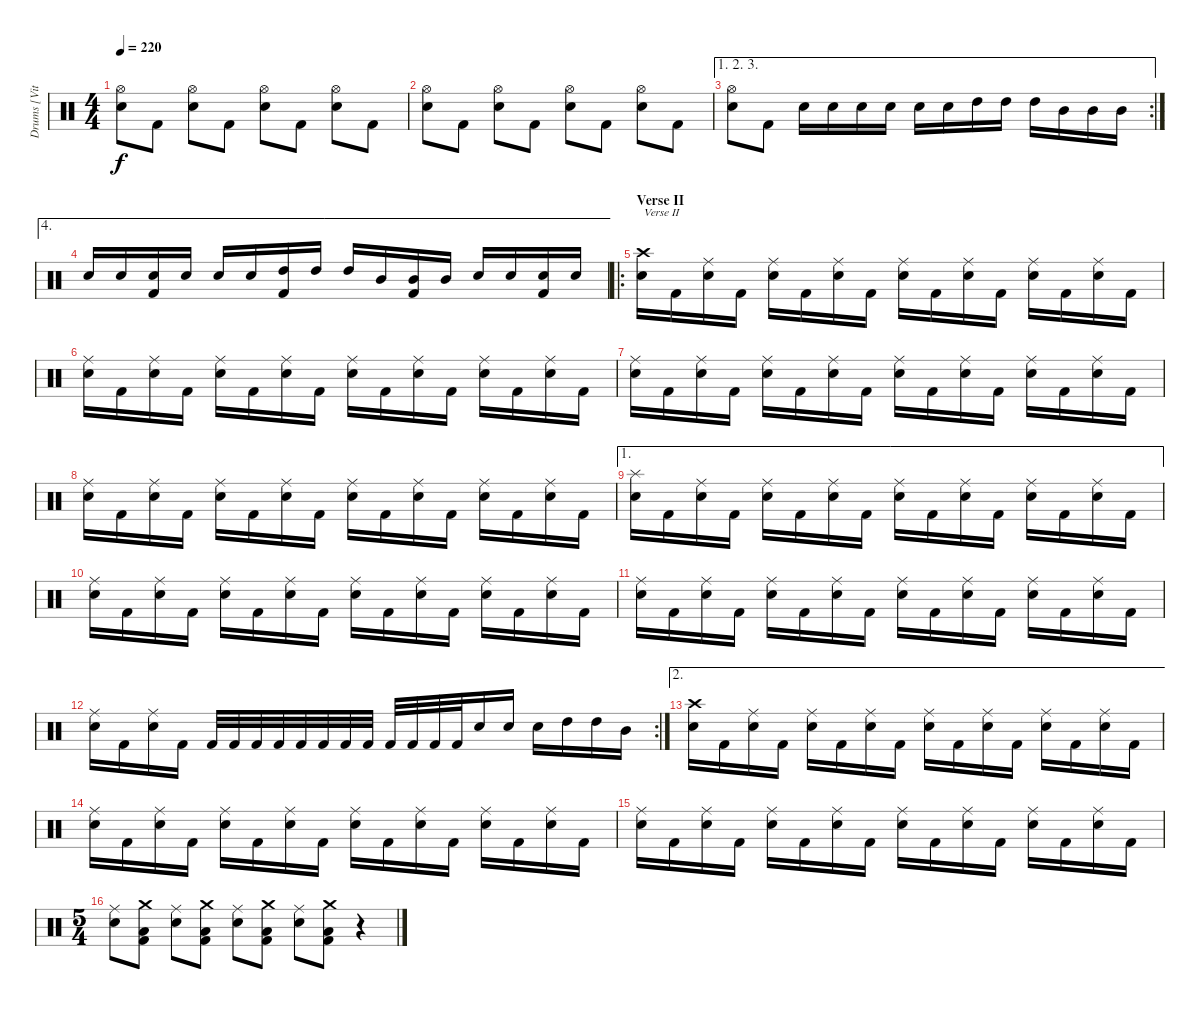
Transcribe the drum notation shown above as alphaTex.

\track ("Drums [Vitek]" "Drums [Vit") {instrument percussion}
\staff {score}
\articulation defaults
\ts (4 4)
\tempo 220
\clef neutral
\ks c
("Hi-Hat (open)" "Electric Snare (hit)").8{dy f} "Kick (hit) 2".8 ("Hi-Hat (open)" "Electric Snare (hit)").8 "Kick (hit) 2".8 ("Hi-Hat (open)" "Electric Snare (hit)").8 "Kick (hit) 2".8 ("Hi-Hat (open)" "Electric Snare (hit)").8 "Kick (hit) 2".8 |
("Hi-Hat (open)" "Electric Snare (hit)").8 "Kick (hit) 2".8 ("Hi-Hat (open)" "Electric Snare (hit)").8 "Kick (hit) 2".8 ("Hi-Hat (open)" "Electric Snare (hit)").8 "Kick (hit) 2".8 ("Hi-Hat (open)" "Electric Snare (hit)").8 "Kick (hit) 2".8 |
\ae (1 2 3)
\rc 2
("Hi-Hat (open)" "Electric Snare (hit)").8 "Kick (hit) 2".8 "Electric Snare (hit)".16 "Electric Snare (hit)".16 "Electric Snare (hit)".16 "Electric Snare (hit)".16 "Electric Snare (hit)".16 "Electric Snare (hit)".16 "High Tom (hit)".16 "High Tom (hit)".16 "High Tom (hit)".16 "Mid Tom (hit)".16 "Mid Tom (hit)".16 "Mid Tom (hit)".16 |
\ae 4 "Electric Snare (hit)".16 "Electric Snare (hit)".16
("Electric Snare (hit)" "Kick (hit) 2").16 "Electric Snare (hit)".16 "Electric Snare (hit)".16 "Electric Snare (hit)".16 ("High Tom (hit)" "Kick (hit) 2").16 "High Tom (hit)".16 "High Tom (hit)".16 "Mid Tom (hit)".16 ("Mid Tom (hit)" "Kick (hit) 2").16 "Mid Tom (hit)".16 "Electric Snare (hit)".16 "Electric Snare (hit)".16 ("Electric Snare (hit)" "Kick (hit) 2").16 "Electric Snare (hit)".16 |
\ro
\section ("" "Verse II")
("Crash high (hit)" "Electric Snare (hit)").16{txt "Verse II"} "Kick (hit) 2".16 ("Ride (middle)" "Electric Snare (hit)").16 "Kick (hit) 2".16 ("Ride (middle)" "Electric Snare (hit)").16 "Kick (hit) 2".16 ("Ride (middle)" "Electric Snare (hit)").16 "Kick (hit) 2".16 ("Ride (middle)" "Electric Snare (hit)").16 "Kick (hit) 2".16 ("Ride (middle)" "Electric Snare (hit)").16 "Kick (hit) 2".16 ("Ride (middle)" "Electric Snare (hit)").16 "Kick (hit) 2".16 ("Ride (middle)" "Electric Snare (hit)").16 "Kick (hit) 2".16 |
("Ride (middle)" "Electric Snare (hit)").16 "Kick (hit) 2".16 ("Ride (middle)" "Electric Snare (hit)").16 "Kick (hit) 2".16 ("Ride (middle)" "Electric Snare (hit)").16 "Kick (hit) 2".16 ("Ride (middle)" "Electric Snare (hit)").16 "Kick (hit) 2".16 ("Ride (middle)" "Electric Snare (hit)").16 "Kick (hit) 2".16 ("Ride (middle)" "Electric Snare (hit)").16 "Kick (hit) 2".16 ("Ride (middle)" "Electric Snare (hit)").16 "Kick (hit) 2".16 ("Ride (middle)" "Electric Snare (hit)").16 "Kick (hit) 2".16 |
("Ride (middle)" "Electric Snare (hit)").16 "Kick (hit) 2".16 ("Ride (middle)" "Electric Snare (hit)").16 "Kick (hit) 2".16 ("Ride (middle)" "Electric Snare (hit)").16 "Kick (hit) 2".16 ("Ride (middle)" "Electric Snare (hit)").16 "Kick (hit) 2".16 ("Ride (middle)" "Electric Snare (hit)").16 "Kick (hit) 2".16 ("Ride (middle)" "Electric Snare (hit)").16 "Kick (hit) 2".16 ("Ride (middle)" "Electric Snare (hit)").16 "Kick (hit) 2".16 ("Ride (middle)" "Electric Snare (hit)").16 "Kick (hit) 2".16 |
("Ride (middle)" "Electric Snare (hit)").16 "Kick (hit) 2".16 ("Ride (middle)" "Electric Snare (hit)").16 "Kick (hit) 2".16 ("Ride (middle)" "Electric Snare (hit)").16 "Kick (hit) 2".16 ("Ride (middle)" "Electric Snare (hit)").16 "Kick (hit) 2".16 ("Ride (middle)" "Electric Snare (hit)").16 "Kick (hit) 2".16 ("Ride (middle)" "Electric Snare (hit)").16 "Kick (hit) 2".16 ("Ride (middle)" "Electric Snare (hit)").16 "Kick (hit) 2".16 ("Ride (middle)" "Electric Snare (hit)").16 "Kick (hit) 2".16 |
\ae 1
("Splash (hit)" "Electric Snare (hit)").16 "Kick (hit) 2".16 ("Ride (middle)" "Electric Snare (hit)").16 "Kick (hit) 2".16 ("Ride (middle)" "Electric Snare (hit)").16 "Kick (hit) 2".16 ("Ride (middle)" "Electric Snare (hit)").16 "Kick (hit) 2".16 ("Ride (middle)" "Electric Snare (hit)").16 "Kick (hit) 2".16 ("Ride (middle)" "Electric Snare (hit)").16 "Kick (hit) 2".16 ("Ride (middle)" "Electric Snare (hit)").16 "Kick (hit) 2".16 ("Ride (middle)" "Electric Snare (hit)").16 "Kick (hit) 2".16 |
("Ride (middle)" "Electric Snare (hit)").16 "Kick (hit) 2".16 ("Ride (middle)" "Electric Snare (hit)").16 "Kick (hit) 2".16 ("Ride (middle)" "Electric Snare (hit)").16 "Kick (hit) 2".16 ("Ride (middle)" "Electric Snare (hit)").16 "Kick (hit) 2".16 ("Ride (middle)" "Electric Snare (hit)").16 "Kick (hit) 2".16 ("Ride (middle)" "Electric Snare (hit)").16 "Kick (hit) 2".16 ("Ride (middle)" "Electric Snare (hit)").16 "Kick (hit) 2".16 ("Ride (middle)" "Electric Snare (hit)").16 "Kick (hit) 2".16 |
("Ride (middle)" "Electric Snare (hit)").16 "Kick (hit) 2".16 ("Ride (middle)" "Electric Snare (hit)").16 "Kick (hit) 2".16 ("Ride (middle)" "Electric Snare (hit)").16 "Kick (hit) 2".16 ("Ride (middle)" "Electric Snare (hit)").16 "Kick (hit) 2".16 ("Ride (middle)" "Electric Snare (hit)").16 "Kick (hit) 2".16 ("Ride (middle)" "Electric Snare (hit)").16 "Kick (hit) 2".16 ("Ride (middle)" "Electric Snare (hit)").16 "Kick (hit) 2".16 ("Ride (middle)" "Electric Snare (hit)").16 "Kick (hit) 2".16 |
\rc 2
("Ride (middle)" "Electric Snare (hit)").16 "Kick (hit) 2".16 ("Ride (middle)" "Electric Snare (hit)").16 "Kick (hit) 2".16 "Kick (hit) 2".32 "Kick (hit) 2".32 "Kick (hit) 2".32 "Kick (hit) 2".32 "Kick (hit) 2".32 "Kick (hit) 2".32 "Kick (hit) 2".32 "Kick (hit) 2".32 "Kick (hit) 2".32 "Kick (hit) 2".32 "Kick (hit) 2".32 "Kick (hit) 2".32 "Electric Snare (hit)".16 "Electric Snare (hit)".16 "Electric Snare (hit)".16 "High Tom (hit)".16 "High Tom (hit)".16 "Mid Tom (hit)".16 |
\ae 2
("Crash high (hit)" "Electric Snare (hit)").16 "Kick (hit) 2".16 ("Ride (middle)" "Electric Snare (hit)").16 "Kick (hit) 2".16 ("Ride (middle)" "Electric Snare (hit)").16 "Kick (hit) 2".16 ("Ride (middle)" "Electric Snare (hit)").16 "Kick (hit) 2".16 ("Ride (middle)" "Electric Snare (hit)").16 "Kick (hit) 2".16 ("Ride (middle)" "Electric Snare (hit)").16 "Kick (hit) 2".16 ("Ride (middle)" "Electric Snare (hit)").16 "Kick (hit) 2".16 ("Ride (middle)" "Electric Snare (hit)").16 "Kick (hit) 2".16 |
("Ride (middle)" "Electric Snare (hit)").16 "Kick (hit) 2".16 ("Ride (middle)" "Electric Snare (hit)").16 "Kick (hit) 2".16 ("Ride (middle)" "Electric Snare (hit)").16 "Kick (hit) 2".16 ("Ride (middle)" "Electric Snare (hit)").16 "Kick (hit) 2".16 ("Ride (middle)" "Electric Snare (hit)").16 "Kick (hit) 2".16 ("Ride (middle)" "Electric Snare (hit)").16 "Kick (hit) 2".16 ("Ride (middle)" "Electric Snare (hit)").16 "Kick (hit) 2".16 ("Ride (middle)" "Electric Snare (hit)").16 "Kick (hit) 2".16 |
("Ride (middle)" "Electric Snare (hit)").16 "Kick (hit) 2".16 ("Ride (middle)" "Electric Snare (hit)").16 "Kick (hit) 2".16 ("Ride (middle)" "Electric Snare (hit)").16 "Kick (hit) 2".16 ("Ride (middle)" "Electric Snare (hit)").16 "Kick (hit) 2".16 ("Ride (middle)" "Electric Snare (hit)").16 "Kick (hit) 2".16 ("Ride (middle)" "Electric Snare (hit)").16 "Kick (hit) 2".16 ("Ride (middle)" "Electric Snare (hit)").16 "Kick (hit) 2".16 ("Ride (middle)" "Electric Snare (hit)").16 "Kick (hit) 2".16 |
\ts (5 4)
("Ride (middle)" "Electric Snare (hit)").8 ("Crash medium (hit)" "Low Tom (hit)" "Kick (hit) 2").8 ("Ride (middle)" "Electric Snare (hit)").8 ("Crash medium (hit)" "Low Tom (hit)" "Kick (hit) 2").8 ("Ride (middle)" "Electric Snare (hit)").8 ("Crash medium (hit)" "Low Tom (hit)" "Kick (hit) 2").8 ("Ride (middle)" "Electric Snare (hit)").8 ("Crash medium (hit)" "Low Tom (hit)" "Kick (hit) 2").8 r.4
